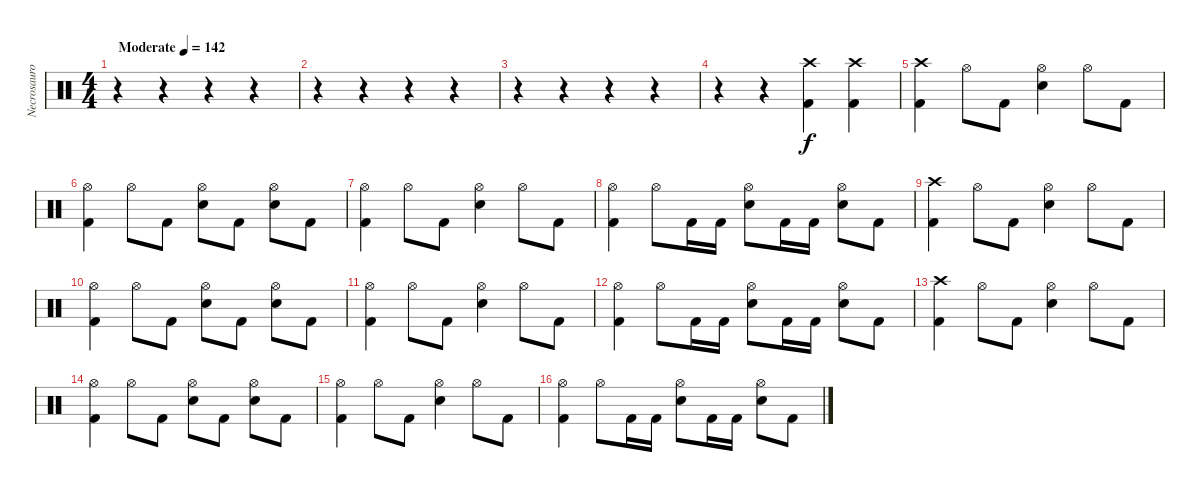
\track ("Necrosauron" "Necrosauro") {instrument percussion}
\staff {score}
\articulation defaults
\ts (4 4)
\tempo (142 "Moderate")
\clef neutral
\ks c
r.4{dy f} r.4 r.4 r.4 |
r.4 r.4 r.4 r.4 |
r.4 r.4 r.4 r.4 |
r.4 r.4 ("Crash high (hit)" "Kick (hit) 2").4 ("Crash high (hit)" "Kick (hit) 2").4 |
("Crash high (hit)" "Kick (hit) 2").4 "Hi-Hat (open)".8 "Kick (hit) 2".8 ("Hi-Hat (open)" "Snare (hit) 2").4 "Hi-Hat (open)".8 "Kick (hit) 2".8 |
("Hi-Hat (open)" "Kick (hit) 2").4 "Hi-Hat (open)".8 "Kick (hit) 2".8 ("Hi-Hat (open)" "Snare (hit) 2").8 "Kick (hit) 2".8 ("Hi-Hat (open)" "Snare (hit) 2").8 "Kick (hit) 2".8 |
("Hi-Hat (open)" "Kick (hit) 2").4 "Hi-Hat (open)".8 "Kick (hit) 2".8 ("Hi-Hat (open)" "Snare (hit) 2").4 "Hi-Hat (open)".8 "Kick (hit) 2".8 |
("Hi-Hat (open)" "Kick (hit) 2").4 "Hi-Hat (open)".8 "Kick (hit) 2".16 "Kick (hit) 2".16 ("Hi-Hat (open)" "Snare (hit) 2").8 "Kick (hit) 2".16 "Kick (hit) 2".16 ("Hi-Hat (open)" "Snare (hit) 2").8 "Kick (hit) 2".8 |
("Crash high (hit)" "Kick (hit) 2").4 "Hi-Hat (open)".8 "Kick (hit) 2".8 ("Hi-Hat (open)" "Snare (hit) 2").4 "Hi-Hat (open)".8 "Kick (hit) 2".8 |
("Hi-Hat (open)" "Kick (hit) 2").4 "Hi-Hat (open)".8 "Kick (hit) 2".8 ("Hi-Hat (open)" "Snare (hit) 2").8 "Kick (hit) 2".8 ("Hi-Hat (open)" "Snare (hit) 2").8 "Kick (hit) 2".8 |
("Hi-Hat (open)" "Kick (hit) 2").4 "Hi-Hat (open)".8 "Kick (hit) 2".8 ("Hi-Hat (open)" "Snare (hit) 2").4 "Hi-Hat (open)".8 "Kick (hit) 2".8 |
("Hi-Hat (open)" "Kick (hit) 2").4 "Hi-Hat (open)".8 "Kick (hit) 2".16 "Kick (hit) 2".16 ("Hi-Hat (open)" "Snare (hit) 2").8 "Kick (hit) 2".16 "Kick (hit) 2".16 ("Hi-Hat (open)" "Snare (hit) 2").8 "Kick (hit) 2".8 |
("Crash high (hit)" "Kick (hit) 2").4 "Hi-Hat (open)".8 "Kick (hit) 2".8 ("Hi-Hat (open)" "Snare (hit) 2").4 "Hi-Hat (open)".8 "Kick (hit) 2".8 |
("Hi-Hat (open)" "Kick (hit) 2").4 "Hi-Hat (open)".8 "Kick (hit) 2".8 ("Hi-Hat (open)" "Snare (hit) 2").8 "Kick (hit) 2".8 ("Hi-Hat (open)" "Snare (hit) 2").8 "Kick (hit) 2".8 |
("Hi-Hat (open)" "Kick (hit) 2").4 "Hi-Hat (open)".8 "Kick (hit) 2".8 ("Hi-Hat (open)" "Snare (hit) 2").4 "Hi-Hat (open)".8 "Kick (hit) 2".8 |
("Hi-Hat (open)" "Kick (hit) 2").4 "Hi-Hat (open)".8 "Kick (hit) 2".16 "Kick (hit) 2".16 ("Hi-Hat (open)" "Snare (hit) 2").8 "Kick (hit) 2".16 "Kick (hit) 2".16 ("Hi-Hat (open)" "Snare (hit) 2").8 "Kick (hit) 2".8
